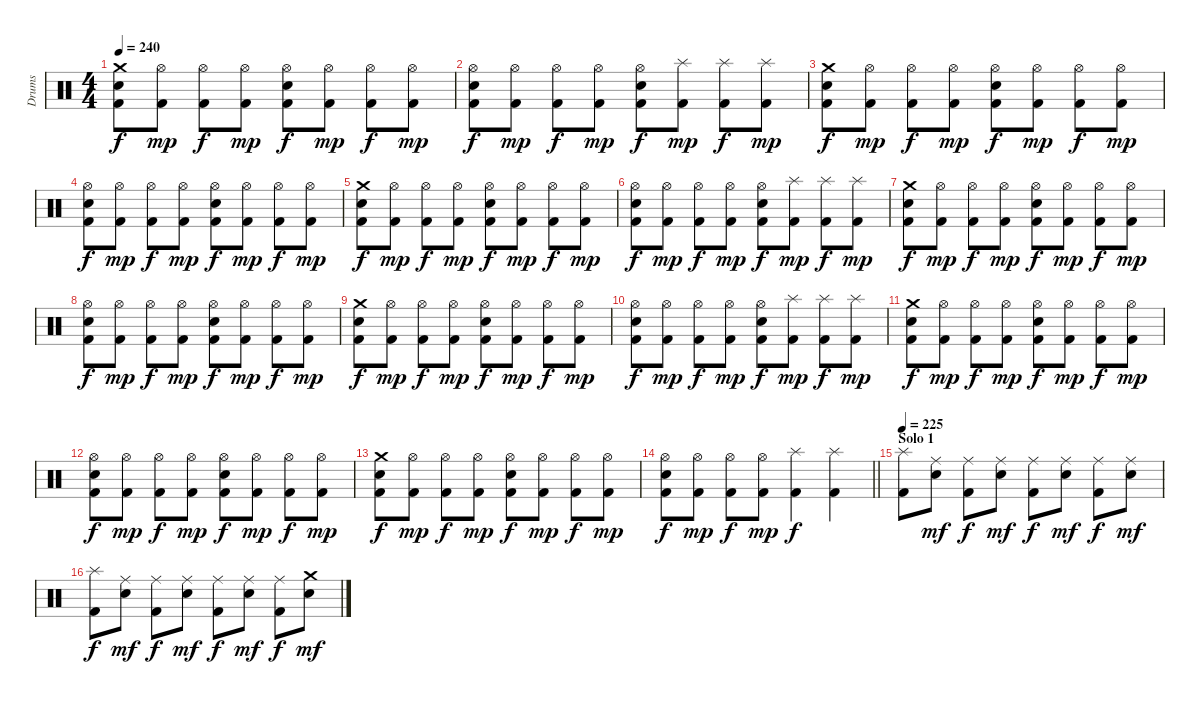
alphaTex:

\track ("Drums" "Drums") {instrument percussion}
\staff {score}
\articulation defaults
\ts (4 4)
\tempo 240
\clef neutral
\ks c
("Crash medium (hit)" "Snare (hit) 2" "Kick (hit) 2").8{dy f} ("Hi-Hat (open)" "Kick (hit) 2").8{dy mp} ("Hi-Hat (open)" "Kick (hit) 2").8{dy f} ("Hi-Hat (open)" "Kick (hit) 2").8{dy mp} ("Hi-Hat (open)" "Snare (hit) 2" "Kick (hit) 2").8{dy f} ("Hi-Hat (open)" "Kick (hit) 2").8{dy mp} ("Hi-Hat (open)" "Kick (hit) 2").8{dy f} ("Hi-Hat (open)" "Kick (hit) 2").8{dy mp} |
("Hi-Hat (open)" "Snare (hit) 2" "Kick (hit) 2").8{dy f} ("Hi-Hat (open)" "Kick (hit) 2").8{dy mp} ("Hi-Hat (open)" "Kick (hit) 2").8{dy f} ("Hi-Hat (open)" "Kick (hit) 2").8{dy mp} ("Hi-Hat (open)" "Snare (hit) 2" "Kick (hit) 2").8{dy f} ("Splash (hit)" "Kick (hit) 2").8{dy mp} ("Splash (hit)" "Kick (hit) 2").8{dy f} ("Splash (hit)" "Kick (hit) 2").8{dy mp} |
("Crash medium (hit)" "Snare (hit) 2" "Kick (hit) 2").8{dy f} ("Hi-Hat (open)" "Kick (hit) 2").8{dy mp} ("Hi-Hat (open)" "Kick (hit) 2").8{dy f} ("Hi-Hat (open)" "Kick (hit) 2").8{dy mp} ("Hi-Hat (open)" "Snare (hit) 2" "Kick (hit) 2").8{dy f} ("Hi-Hat (open)" "Kick (hit) 2").8{dy mp} ("Hi-Hat (open)" "Kick (hit) 2").8{dy f} ("Hi-Hat (open)" "Kick (hit) 2").8{dy mp} |
("Hi-Hat (open)" "Snare (hit) 2" "Kick (hit) 2").8{dy f} ("Hi-Hat (open)" "Kick (hit) 2").8{dy mp} ("Hi-Hat (open)" "Kick (hit) 2").8{dy f} ("Hi-Hat (open)" "Kick (hit) 2").8{dy mp} ("Hi-Hat (open)" "Snare (hit) 2" "Kick (hit) 2").8{dy f} ("Hi-Hat (open)" "Kick (hit) 2").8{dy mp} ("Hi-Hat (open)" "Kick (hit) 2").8{dy f} ("Hi-Hat (open)" "Kick (hit) 2").8{dy mp} |
("Crash medium (hit)" "Snare (hit) 2" "Kick (hit) 2").8{dy f} ("Hi-Hat (open)" "Kick (hit) 2").8{dy mp} ("Hi-Hat (open)" "Kick (hit) 2").8{dy f} ("Hi-Hat (open)" "Kick (hit) 2").8{dy mp} ("Hi-Hat (open)" "Snare (hit) 2" "Kick (hit) 2").8{dy f} ("Hi-Hat (open)" "Kick (hit) 2").8{dy mp} ("Hi-Hat (open)" "Kick (hit) 2").8{dy f} ("Hi-Hat (open)" "Kick (hit) 2").8{dy mp} |
("Hi-Hat (open)" "Snare (hit) 2" "Kick (hit) 2").8{dy f} ("Hi-Hat (open)" "Kick (hit) 2").8{dy mp} ("Hi-Hat (open)" "Kick (hit) 2").8{dy f} ("Hi-Hat (open)" "Kick (hit) 2").8{dy mp} ("Hi-Hat (open)" "Snare (hit) 2" "Kick (hit) 2").8{dy f} ("Splash (hit)" "Kick (hit) 2").8{dy mp} ("Splash (hit)" "Kick (hit) 2").8{dy f} ("Splash (hit)" "Kick (hit) 2").8{dy mp} |
("Crash medium (hit)" "Snare (hit) 2" "Kick (hit) 2").8{dy f} ("Hi-Hat (open)" "Kick (hit) 2").8{dy mp} ("Hi-Hat (open)" "Kick (hit) 2").8{dy f} ("Hi-Hat (open)" "Kick (hit) 2").8{dy mp} ("Hi-Hat (open)" "Snare (hit) 2" "Kick (hit) 2").8{dy f} ("Hi-Hat (open)" "Kick (hit) 2").8{dy mp} ("Hi-Hat (open)" "Kick (hit) 2").8{dy f} ("Hi-Hat (open)" "Kick (hit) 2").8{dy mp} |
("Hi-Hat (open)" "Snare (hit) 2" "Kick (hit) 2").8{dy f} ("Hi-Hat (open)" "Kick (hit) 2").8{dy mp} ("Hi-Hat (open)" "Kick (hit) 2").8{dy f} ("Hi-Hat (open)" "Kick (hit) 2").8{dy mp} ("Hi-Hat (open)" "Snare (hit) 2" "Kick (hit) 2").8{dy f} ("Hi-Hat (open)" "Kick (hit) 2").8{dy mp} ("Hi-Hat (open)" "Kick (hit) 2").8{dy f} ("Hi-Hat (open)" "Kick (hit) 2").8{dy mp} |
("Crash medium (hit)" "Snare (hit) 2" "Kick (hit) 2").8{dy f} ("Hi-Hat (open)" "Kick (hit) 2").8{dy mp} ("Hi-Hat (open)" "Kick (hit) 2").8{dy f} ("Hi-Hat (open)" "Kick (hit) 2").8{dy mp} ("Hi-Hat (open)" "Snare (hit) 2" "Kick (hit) 2").8{dy f} ("Hi-Hat (open)" "Kick (hit) 2").8{dy mp} ("Hi-Hat (open)" "Kick (hit) 2").8{dy f} ("Hi-Hat (open)" "Kick (hit) 2").8{dy mp} |
("Hi-Hat (open)" "Snare (hit) 2" "Kick (hit) 2").8{dy f} ("Hi-Hat (open)" "Kick (hit) 2").8{dy mp} ("Hi-Hat (open)" "Kick (hit) 2").8{dy f} ("Hi-Hat (open)" "Kick (hit) 2").8{dy mp} ("Hi-Hat (open)" "Snare (hit) 2" "Kick (hit) 2").8{dy f} ("Splash (hit)" "Kick (hit) 2").8{dy mp} ("Splash (hit)" "Kick (hit) 2").8{dy f} ("Splash (hit)" "Kick (hit) 2").8{dy mp} |
("Crash medium (hit)" "Snare (hit) 2" "Kick (hit) 2").8{dy f} ("Hi-Hat (open)" "Kick (hit) 2").8{dy mp} ("Hi-Hat (open)" "Kick (hit) 2").8{dy f} ("Hi-Hat (open)" "Kick (hit) 2").8{dy mp} ("Hi-Hat (open)" "Snare (hit) 2" "Kick (hit) 2").8{dy f} ("Hi-Hat (open)" "Kick (hit) 2").8{dy mp} ("Hi-Hat (open)" "Kick (hit) 2").8{dy f} ("Hi-Hat (open)" "Kick (hit) 2").8{dy mp} |
("Hi-Hat (open)" "Snare (hit) 2" "Kick (hit) 2").8{dy f} ("Hi-Hat (open)" "Kick (hit) 2").8{dy mp} ("Hi-Hat (open)" "Kick (hit) 2").8{dy f} ("Hi-Hat (open)" "Kick (hit) 2").8{dy mp} ("Hi-Hat (open)" "Snare (hit) 2" "Kick (hit) 2").8{dy f} ("Hi-Hat (open)" "Kick (hit) 2").8{dy mp} ("Hi-Hat (open)" "Kick (hit) 2").8{dy f} ("Hi-Hat (open)" "Kick (hit) 2").8{dy mp} |
("Crash medium (hit)" "Snare (hit) 2" "Kick (hit) 2").8{dy f} ("Hi-Hat (open)" "Kick (hit) 2").8{dy mp} ("Hi-Hat (open)" "Kick (hit) 2").8{dy f} ("Hi-Hat (open)" "Kick (hit) 2").8{dy mp} ("Hi-Hat (open)" "Snare (hit) 2" "Kick (hit) 2").8{dy f} ("Hi-Hat (open)" "Kick (hit) 2").8{dy mp} ("Hi-Hat (open)" "Kick (hit) 2").8{dy f} ("Hi-Hat (open)" "Kick (hit) 2").8{dy mp} |
\barLineRight lightlight
("Hi-Hat (open)" "Snare (hit) 2" "Kick (hit) 2").8{dy f} ("Hi-Hat (open)" "Kick (hit) 2").8{dy mp} ("Hi-Hat (open)" "Kick (hit) 2").8{dy f} ("Hi-Hat (open)" "Kick (hit) 2").8{dy mp} ("Splash (hit)" "Kick (hit) 2").4{dy f} ("Splash (hit)" "Kick (hit) 2").4 |
\section ("" "Solo 1")
\tempo 225
("Splash (hit)" "Kick (hit) 2").8 ("Ride (middle)" "Snare (hit) 2").8{dy mf} ("Ride (middle)" "Kick (hit) 2").8{dy f} ("Ride (middle)" "Snare (hit) 2").8{dy mf} ("Ride (middle)" "Kick (hit) 2").8{dy f} ("Ride (middle)" "Snare (hit) 2").8{dy mf} ("Ride (middle)" "Kick (hit) 2").8{dy f} ("Ride (middle)" "Snare (hit) 2").8{dy mf} |
("Splash (hit)" "Kick (hit) 2").8{dy f} ("Ride (middle)" "Snare (hit) 2").8{dy mf} ("Ride (middle)" "Kick (hit) 2").8{dy f} ("Ride (middle)" "Snare (hit) 2").8{dy mf} ("Ride (middle)" "Kick (hit) 2").8{dy f} ("Ride (middle)" "Snare (hit) 2").8{dy mf} ("Ride (middle)" "Kick (hit) 2").8{dy f} ("Crash medium (hit)" "Snare (hit) 2").8{dy mf}
